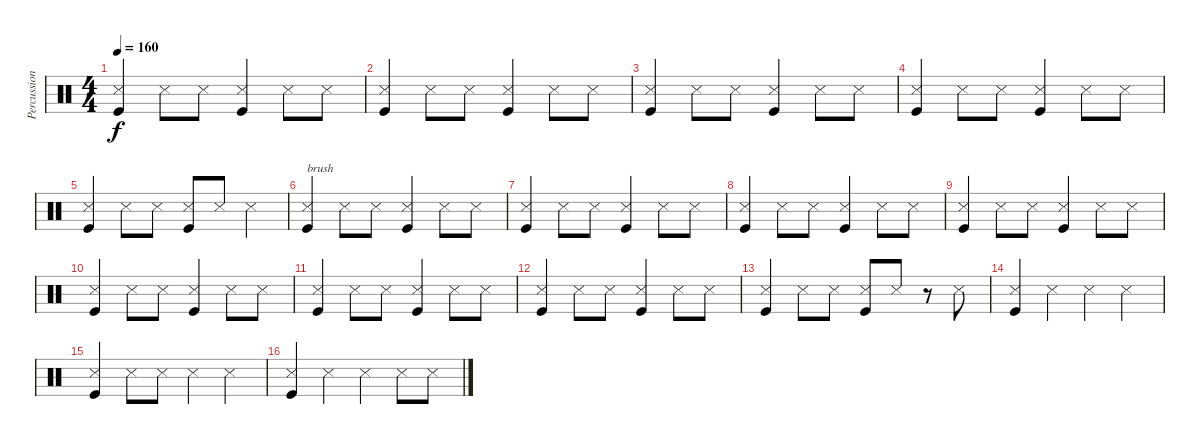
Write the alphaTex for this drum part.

\track ("Percussion" "Percussion") {instrument percussion}
\staff {score}
\articulation defaults
\ts (4 4)
\tempo 160
\clef neutral
\ks c
("Snare (side stick) 3" "Kick (hit)").4{dy f} "Snare (side stick) 3".8 "Snare (side stick) 3".8 ("Snare (side stick) 3" "Kick (hit)").4 "Snare (side stick) 3".8 "Snare (side stick) 3".8 |
("Snare (side stick) 3" "Kick (hit)").4 "Snare (side stick) 3".8 "Snare (side stick) 3".8 ("Snare (side stick) 3" "Kick (hit)").4 "Snare (side stick) 3".8 "Snare (side stick) 3".8 |
("Snare (side stick) 3" "Kick (hit)").4 "Snare (side stick) 3".8 "Snare (side stick) 3".8 ("Snare (side stick) 3" "Kick (hit)").4 "Snare (side stick) 3".8 "Snare (side stick) 3".8 |
("Snare (side stick) 3" "Kick (hit)").4 "Snare (side stick) 3".8 "Snare (side stick) 3".8 ("Snare (side stick) 3" "Kick (hit)").4 "Snare (side stick) 3".8 "Snare (side stick) 3".8 |
("Snare (side stick) 3" "Kick (hit)").4 "Snare (side stick) 3".8 "Snare (side stick) 3".8 ("Snare (side stick) 3" "Kick (hit)").8 "Snare (side stick) 3".8 "Snare (side stick) 3".4 |
("Snare (side stick) 3" "Kick (hit)").4{txt "brush"} "Snare (side stick) 3".8 "Snare (side stick) 3".8 ("Snare (side stick) 3" "Kick (hit)").4 "Snare (side stick) 3".8 "Snare (side stick) 3".8 |
("Snare (side stick) 3" "Kick (hit)").4 "Snare (side stick) 3".8 "Snare (side stick) 3".8 ("Snare (side stick) 3" "Kick (hit)").4 "Snare (side stick) 3".8 "Snare (side stick) 3".8 |
("Snare (side stick) 3" "Kick (hit)").4 "Snare (side stick) 3".8 "Snare (side stick) 3".8 ("Snare (side stick) 3" "Kick (hit)").4 "Snare (side stick) 3".8 "Snare (side stick) 3".8 |
("Snare (side stick) 3" "Kick (hit)").4 "Snare (side stick) 3".8 "Snare (side stick) 3".8 ("Snare (side stick) 3" "Kick (hit)").4 "Snare (side stick) 3".8 "Snare (side stick) 3".8 |
("Snare (side stick) 3" "Kick (hit)").4 "Snare (side stick) 3".8 "Snare (side stick) 3".8 ("Snare (side stick) 3" "Kick (hit)").4 "Snare (side stick) 3".8 "Snare (side stick) 3".8 |
("Snare (side stick) 3" "Kick (hit)").4 "Snare (side stick) 3".8 "Snare (side stick) 3".8 ("Snare (side stick) 3" "Kick (hit)").4 "Snare (side stick) 3".8 "Snare (side stick) 3".8 |
("Snare (side stick) 3" "Kick (hit)").4 "Snare (side stick) 3".8 "Snare (side stick) 3".8 ("Snare (side stick) 3" "Kick (hit)").4 "Snare (side stick) 3".8 "Snare (side stick) 3".8 |
("Snare (side stick) 3" "Kick (hit)").4 "Snare (side stick) 3".8 "Snare (side stick) 3".8 ("Snare (side stick) 3" "Kick (hit)").8 "Snare (side stick) 3".8 r.8 "Snare (side stick) 3".8 |
("Snare (side stick) 3" "Kick (hit)").4 "Snare (side stick) 3".4 "Snare (side stick) 3".4 "Snare (side stick) 3".4 |
("Snare (side stick) 3" "Kick (hit)").4 "Snare (side stick) 3".8 "Snare (side stick) 3".8 "Snare (side stick) 3".4 "Snare (side stick) 3".4 |
("Snare (side stick) 3" "Kick (hit)").4 "Snare (side stick) 3".4 "Snare (side stick) 3".4 "Snare (side stick) 3".8 "Snare (side stick) 3".8
